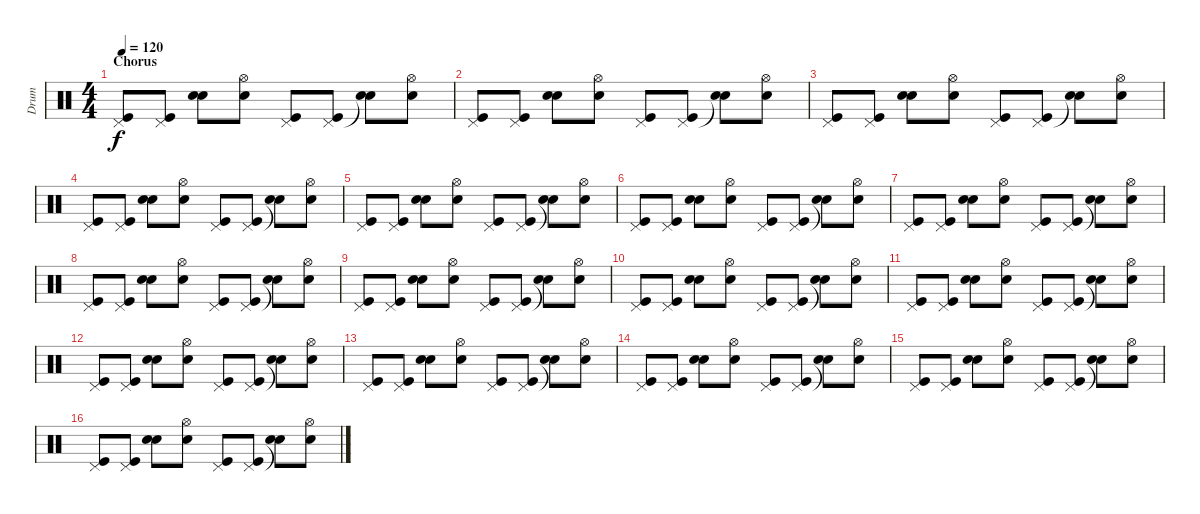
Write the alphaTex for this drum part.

\track ("Drum" "Drum") {instrument percussion}
\staff {score}
\articulation defaults
\ts (4 4)
\section ("" "Chorus")
\tempo 120
\clef neutral
\ks c
("Pedal Hi-Hat (hit)" "Kick (hit)").8{dy f} ("Pedal Hi-Hat (hit)" "Kick (hit)").8 ("Snare (hit) 2" "Snare (hit) 2").8 ("Hi-Hat (open)" "Snare (hit) 2").8 ("Pedal Hi-Hat (hit)" "Kick (hit)").8 ("Pedal Hi-Hat (hit)" "Kick (hit)").8 ("Snare (hit) 2"{t} "Snare (hit) 2").8 ("Hi-Hat (open)" "Snare (hit) 2").8 |
("Pedal Hi-Hat (hit)" "Kick (hit)").8 ("Pedal Hi-Hat (hit)" "Kick (hit)").8 ("Snare (hit) 2" "Snare (hit) 2").8 ("Hi-Hat (open)" "Snare (hit) 2").8 ("Pedal Hi-Hat (hit)" "Kick (hit)").8 ("Pedal Hi-Hat (hit)" "Kick (hit)").8 ("Snare (hit) 2"{t} "Snare (hit) 2").8 ("Hi-Hat (open)" "Snare (hit) 2").8 |
("Pedal Hi-Hat (hit)" "Kick (hit)").8 ("Pedal Hi-Hat (hit)" "Kick (hit)").8 ("Snare (hit) 2" "Snare (hit) 2").8 ("Hi-Hat (open)" "Snare (hit) 2").8 ("Pedal Hi-Hat (hit)" "Kick (hit)").8 ("Pedal Hi-Hat (hit)" "Kick (hit)").8 ("Snare (hit) 2"{t} "Snare (hit) 2").8 ("Hi-Hat (open)" "Snare (hit) 2").8 |
("Pedal Hi-Hat (hit)" "Kick (hit)").8 ("Pedal Hi-Hat (hit)" "Kick (hit)").8 ("Snare (hit) 2" "Snare (hit) 2").8 ("Hi-Hat (open)" "Snare (hit) 2").8 ("Pedal Hi-Hat (hit)" "Kick (hit)").8 ("Pedal Hi-Hat (hit)" "Kick (hit)").8 ("Snare (hit) 2"{t} "Snare (hit) 2").8 ("Hi-Hat (open)" "Snare (hit) 2").8 |
("Pedal Hi-Hat (hit)" "Kick (hit)").8 ("Pedal Hi-Hat (hit)" "Kick (hit)").8 ("Snare (hit) 2" "Snare (hit) 2").8 ("Hi-Hat (open)" "Snare (hit) 2").8 ("Pedal Hi-Hat (hit)" "Kick (hit)").8 ("Pedal Hi-Hat (hit)" "Kick (hit)").8 ("Snare (hit) 2"{t} "Snare (hit) 2").8 ("Hi-Hat (open)" "Snare (hit) 2").8 |
("Pedal Hi-Hat (hit)" "Kick (hit)").8 ("Pedal Hi-Hat (hit)" "Kick (hit)").8 ("Snare (hit) 2" "Snare (hit) 2").8 ("Hi-Hat (open)" "Snare (hit) 2").8 ("Pedal Hi-Hat (hit)" "Kick (hit)").8 ("Pedal Hi-Hat (hit)" "Kick (hit)").8 ("Snare (hit) 2"{t} "Snare (hit) 2").8 ("Hi-Hat (open)" "Snare (hit) 2").8 |
("Pedal Hi-Hat (hit)" "Kick (hit)").8 ("Pedal Hi-Hat (hit)" "Kick (hit)").8 ("Snare (hit) 2" "Snare (hit) 2").8 ("Hi-Hat (open)" "Snare (hit) 2").8 ("Pedal Hi-Hat (hit)" "Kick (hit)").8 ("Pedal Hi-Hat (hit)" "Kick (hit)").8 ("Snare (hit) 2"{t} "Snare (hit) 2").8 ("Hi-Hat (open)" "Snare (hit) 2").8 |
("Pedal Hi-Hat (hit)" "Kick (hit)").8 ("Pedal Hi-Hat (hit)" "Kick (hit)").8 ("Snare (hit) 2" "Snare (hit) 2").8 ("Hi-Hat (open)" "Snare (hit) 2").8 ("Pedal Hi-Hat (hit)" "Kick (hit)").8 ("Pedal Hi-Hat (hit)" "Kick (hit)").8 ("Snare (hit) 2"{t} "Snare (hit) 2").8 ("Hi-Hat (open)" "Snare (hit) 2").8 |
("Pedal Hi-Hat (hit)" "Kick (hit)").8 ("Pedal Hi-Hat (hit)" "Kick (hit)").8 ("Snare (hit) 2" "Snare (hit) 2").8 ("Hi-Hat (open)" "Snare (hit) 2").8 ("Pedal Hi-Hat (hit)" "Kick (hit)").8 ("Pedal Hi-Hat (hit)" "Kick (hit)").8 ("Snare (hit) 2"{t} "Snare (hit) 2").8 ("Hi-Hat (open)" "Snare (hit) 2").8 |
("Pedal Hi-Hat (hit)" "Kick (hit)").8 ("Pedal Hi-Hat (hit)" "Kick (hit)").8 ("Snare (hit) 2" "Snare (hit) 2").8 ("Hi-Hat (open)" "Snare (hit) 2").8 ("Pedal Hi-Hat (hit)" "Kick (hit)").8 ("Pedal Hi-Hat (hit)" "Kick (hit)").8 ("Snare (hit) 2"{t} "Snare (hit) 2").8 ("Hi-Hat (open)" "Snare (hit) 2").8 |
("Pedal Hi-Hat (hit)" "Kick (hit)").8 ("Pedal Hi-Hat (hit)" "Kick (hit)").8 ("Snare (hit) 2" "Snare (hit) 2").8 ("Hi-Hat (open)" "Snare (hit) 2").8 ("Pedal Hi-Hat (hit)" "Kick (hit)").8 ("Pedal Hi-Hat (hit)" "Kick (hit)").8 ("Snare (hit) 2"{t} "Snare (hit) 2").8 ("Hi-Hat (open)" "Snare (hit) 2").8 |
("Pedal Hi-Hat (hit)" "Kick (hit)").8 ("Pedal Hi-Hat (hit)" "Kick (hit)").8 ("Snare (hit) 2" "Snare (hit) 2").8 ("Hi-Hat (open)" "Snare (hit) 2").8 ("Pedal Hi-Hat (hit)" "Kick (hit)").8 ("Pedal Hi-Hat (hit)" "Kick (hit)").8 ("Snare (hit) 2"{t} "Snare (hit) 2").8 ("Hi-Hat (open)" "Snare (hit) 2").8 |
("Pedal Hi-Hat (hit)" "Kick (hit)").8 ("Pedal Hi-Hat (hit)" "Kick (hit)").8 ("Snare (hit) 2" "Snare (hit) 2").8 ("Hi-Hat (open)" "Snare (hit) 2").8 ("Pedal Hi-Hat (hit)" "Kick (hit)").8 ("Pedal Hi-Hat (hit)" "Kick (hit)").8 ("Snare (hit) 2"{t} "Snare (hit) 2").8 ("Hi-Hat (open)" "Snare (hit) 2").8 |
("Pedal Hi-Hat (hit)" "Kick (hit)").8 ("Pedal Hi-Hat (hit)" "Kick (hit)").8 ("Snare (hit) 2" "Snare (hit) 2").8 ("Hi-Hat (open)" "Snare (hit) 2").8 ("Pedal Hi-Hat (hit)" "Kick (hit)").8 ("Pedal Hi-Hat (hit)" "Kick (hit)").8 ("Snare (hit) 2"{t} "Snare (hit) 2").8 ("Hi-Hat (open)" "Snare (hit) 2").8 |
("Pedal Hi-Hat (hit)" "Kick (hit)").8 ("Pedal Hi-Hat (hit)" "Kick (hit)").8 ("Snare (hit) 2" "Snare (hit) 2").8 ("Hi-Hat (open)" "Snare (hit) 2").8 ("Pedal Hi-Hat (hit)" "Kick (hit)").8 ("Pedal Hi-Hat (hit)" "Kick (hit)").8 ("Snare (hit) 2"{t} "Snare (hit) 2").8 ("Hi-Hat (open)" "Snare (hit) 2").8 |
("Pedal Hi-Hat (hit)" "Kick (hit)").8 ("Pedal Hi-Hat (hit)" "Kick (hit)").8 ("Snare (hit) 2" "Snare (hit) 2").8 ("Hi-Hat (open)" "Snare (hit) 2").8 ("Pedal Hi-Hat (hit)" "Kick (hit)").8 ("Pedal Hi-Hat (hit)" "Kick (hit)").8 ("Snare (hit) 2"{t} "Snare (hit) 2").8 ("Hi-Hat (open)" "Snare (hit) 2").8
